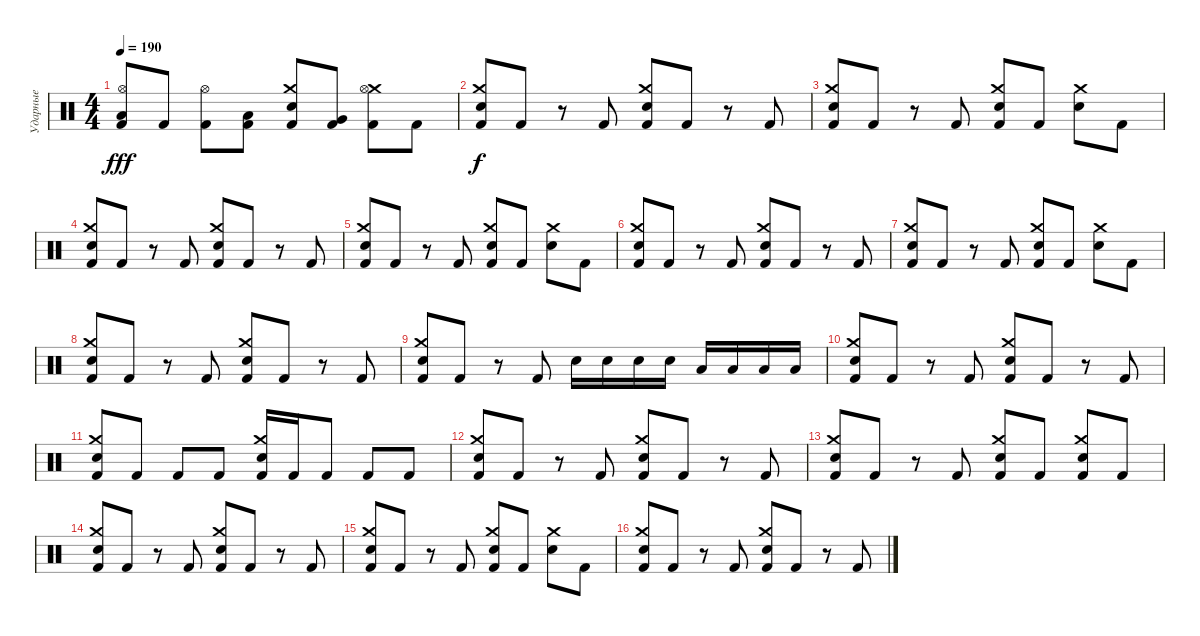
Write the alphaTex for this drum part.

\track ("Ударные" "Ударные") {instrument percussion}
\staff {score}
\articulation defaults
\ts (4 4)
\tempo 190
\clef neutral
\ks c
("Low Tom (hit)" "Hi-Hat (open)" "Kick (hit) 2").8{dy fff} "Kick (hit) 2".8 ("Hi-Hat (open)" "Kick (hit) 2").8 ("Low Tom (hit)" "Kick (hit) 2").8 ("Crash medium (hit)" "Electric Snare (hit)" "Kick (hit) 2").8 ("Very Low Tom (hit)" "Kick (hit) 2").8 ("Crash medium (hit)" "Hi-Hat (open)" "Kick (hit) 2").8 "Kick (hit) 2".8 |
("Crash medium (hit)" "Electric Snare (hit)" "Kick (hit) 2").8{dy f} "Kick (hit) 2".8 r.8 "Kick (hit) 2".8 ("Crash medium (hit)" "Electric Snare (hit)" "Kick (hit) 2").8 "Kick (hit) 2".8 r.8 "Kick (hit) 2".8 |
("Crash medium (hit)" "Electric Snare (hit)" "Kick (hit) 2").8 "Kick (hit) 2".8 r.8 "Kick (hit) 2".8 ("Crash medium (hit)" "Electric Snare (hit)" "Kick (hit) 2").8 "Kick (hit) 2".8 ("Crash medium (hit)" "Electric Snare (hit)").8 "Kick (hit) 2".8 |
("Crash medium (hit)" "Electric Snare (hit)" "Kick (hit) 2").8 "Kick (hit) 2".8 r.8 "Kick (hit) 2".8 ("Crash medium (hit)" "Electric Snare (hit)" "Kick (hit) 2").8 "Kick (hit) 2".8 r.8 "Kick (hit) 2".8 |
("Crash medium (hit)" "Electric Snare (hit)" "Kick (hit) 2").8 "Kick (hit) 2".8 r.8 "Kick (hit) 2".8 ("Crash medium (hit)" "Electric Snare (hit)" "Kick (hit) 2").8 "Kick (hit) 2".8 ("Crash medium (hit)" "Electric Snare (hit)").8 "Kick (hit) 2".8 |
("Crash medium (hit)" "Electric Snare (hit)" "Kick (hit) 2").8 "Kick (hit) 2".8 r.8 "Kick (hit) 2".8 ("Crash medium (hit)" "Electric Snare (hit)" "Kick (hit) 2").8 "Kick (hit) 2".8 r.8 "Kick (hit) 2".8 |
("Crash medium (hit)" "Electric Snare (hit)" "Kick (hit) 2").8 "Kick (hit) 2".8 r.8 "Kick (hit) 2".8 ("Crash medium (hit)" "Electric Snare (hit)" "Kick (hit) 2").8 "Kick (hit) 2".8 ("Crash medium (hit)" "Electric Snare (hit)").8 "Kick (hit) 2".8 |
("Crash medium (hit)" "Electric Snare (hit)" "Kick (hit) 2").8 "Kick (hit) 2".8 r.8 "Kick (hit) 2".8 ("Crash medium (hit)" "Electric Snare (hit)" "Kick (hit) 2").8 "Kick (hit) 2".8 r.8 "Kick (hit) 2".8 |
("Crash medium (hit)" "Electric Snare (hit)" "Kick (hit) 2").8 "Kick (hit) 2".8 r.8 "Kick (hit) 2".8 "Electric Snare (hit)".16 "Electric Snare (hit)".16 "Electric Snare (hit)".16 "Electric Snare (hit)".16 "Low Tom (hit)".16 "Low Tom (hit)".16 "Low Tom (hit)".16 "Low Tom (hit)".16 |
("Crash medium (hit)" "Electric Snare (hit)" "Kick (hit) 2").8 "Kick (hit) 2".8 r.8 "Kick (hit) 2".8 ("Crash medium (hit)" "Electric Snare (hit)" "Kick (hit) 2").8 "Kick (hit) 2".8 r.8 "Kick (hit) 2".8 |
("Crash medium (hit)" "Electric Snare (hit)" "Kick (hit) 2").8 "Kick (hit) 2".8 "Kick (hit) 2".8 "Kick (hit) 2".8 ("Crash medium (hit)" "Electric Snare (hit)" "Kick (hit) 2").16 "Kick (hit) 2".16 "Kick (hit) 2".8 "Kick (hit) 2".8 "Kick (hit) 2".8 |
("Crash medium (hit)" "Electric Snare (hit)" "Kick (hit) 2").8 "Kick (hit) 2".8 r.8 "Kick (hit) 2".8 ("Crash medium (hit)" "Electric Snare (hit)" "Kick (hit) 2").8 "Kick (hit) 2".8 r.8 "Kick (hit) 2".8 |
("Crash medium (hit)" "Electric Snare (hit)" "Kick (hit) 2").8 "Kick (hit) 2".8 r.8 "Kick (hit) 2".8 ("Crash medium (hit)" "Electric Snare (hit)" "Kick (hit) 2").8 "Kick (hit) 2".8 ("Crash medium (hit)" "Electric Snare (hit)" "Kick (hit) 2").8 "Kick (hit) 2".8 |
("Crash medium (hit)" "Electric Snare (hit)" "Kick (hit) 2").8 "Kick (hit) 2".8 r.8 "Kick (hit) 2".8 ("Crash medium (hit)" "Electric Snare (hit)" "Kick (hit) 2").8 "Kick (hit) 2".8 r.8 "Kick (hit) 2".8 |
("Crash medium (hit)" "Electric Snare (hit)" "Kick (hit) 2").8 "Kick (hit) 2".8 r.8 "Kick (hit) 2".8 ("Crash medium (hit)" "Electric Snare (hit)" "Kick (hit) 2").8 "Kick (hit) 2".8 ("Crash medium (hit)" "Electric Snare (hit)").8 "Kick (hit) 2".8 |
("Crash medium (hit)" "Electric Snare (hit)" "Kick (hit) 2").8 "Kick (hit) 2".8 r.8 "Kick (hit) 2".8 ("Crash medium (hit)" "Electric Snare (hit)" "Kick (hit) 2").8 "Kick (hit) 2".8 r.8 "Kick (hit) 2".8
